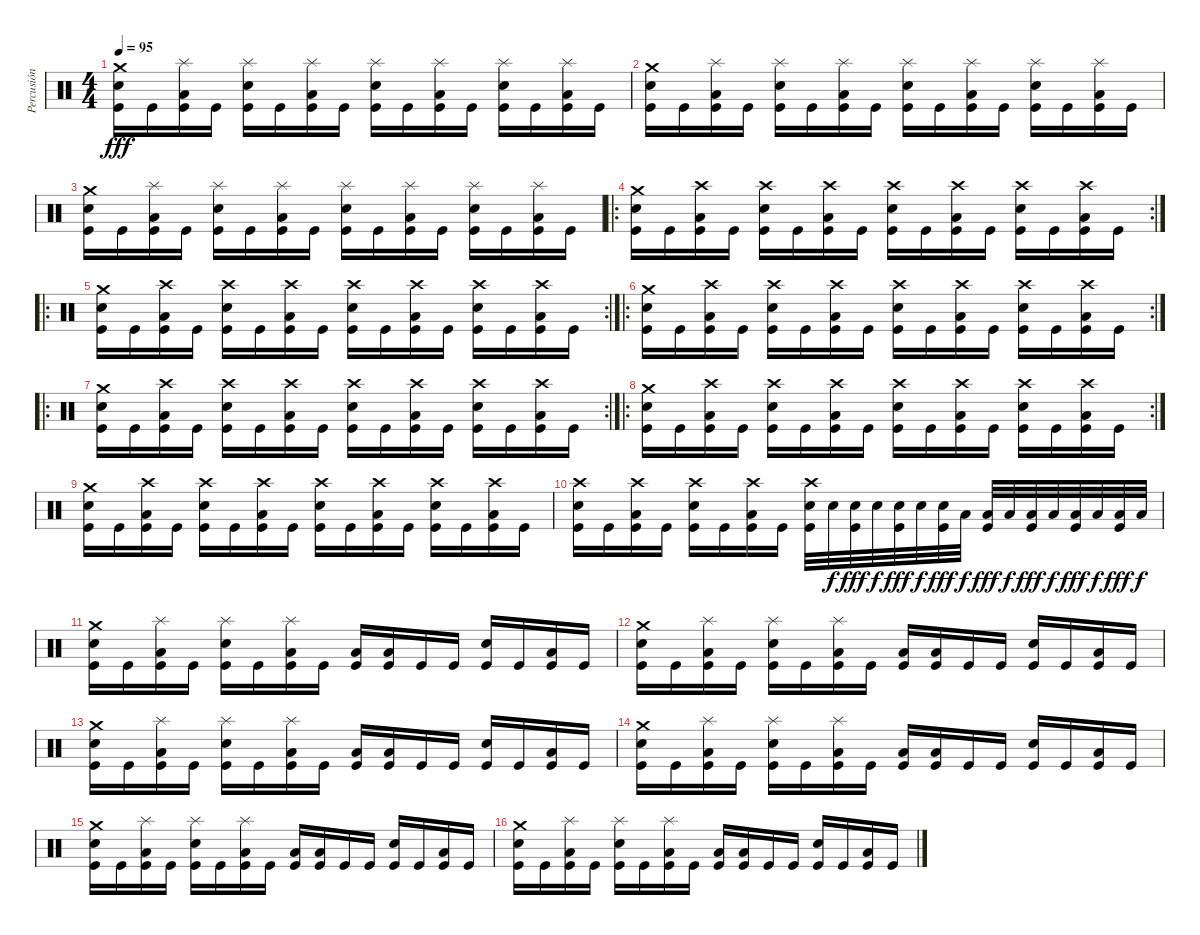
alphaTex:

\track ("Percusión" "Percusión") {instrument percussion}
\staff {score}
\articulation defaults
\ts (4 4)
\tempo 95
\clef neutral
\ks c
("Crash medium (hit)" "Snare (hit) 2" "Kick (hit)").16{dy fff} "Kick (hit)".16 ("Splash (hit)" "Low Floor Tom (hit)" "Kick (hit)").16 "Kick (hit)".16 ("Splash (hit)" "Snare (hit) 2" "Kick (hit)").16 "Kick (hit)".16 ("Splash (hit)" "Low Floor Tom (hit)" "Kick (hit)").16 "Kick (hit)".16 ("Splash (hit)" "Snare (hit) 2" "Kick (hit)").16 "Kick (hit)".16 ("Splash (hit)" "Low Floor Tom (hit)" "Kick (hit)").16 "Kick (hit)".16 ("Splash (hit)" "Snare (hit) 2" "Kick (hit)").16 "Kick (hit)".16 ("Splash (hit)" "Low Floor Tom (hit)" "Kick (hit)").16 "Kick (hit)".16 |
("Crash medium (hit)" "Snare (hit) 2" "Kick (hit)").16 "Kick (hit)".16 ("Splash (hit)" "Low Floor Tom (hit)" "Kick (hit)").16 "Kick (hit)".16 ("Splash (hit)" "Snare (hit) 2" "Kick (hit)").16 "Kick (hit)".16 ("Splash (hit)" "Low Floor Tom (hit)" "Kick (hit)").16 "Kick (hit)".16 ("Splash (hit)" "Snare (hit) 2" "Kick (hit)").16 "Kick (hit)".16 ("Splash (hit)" "Low Floor Tom (hit)" "Kick (hit)").16 "Kick (hit)".16 ("Splash (hit)" "Snare (hit) 2" "Kick (hit)").16 "Kick (hit)".16 ("Splash (hit)" "Low Floor Tom (hit)" "Kick (hit)").16 "Kick (hit)".16 |
("Crash medium (hit)" "Snare (hit) 2" "Kick (hit)").16 "Kick (hit)".16 ("Splash (hit)" "Low Floor Tom (hit)" "Kick (hit)").16 "Kick (hit)".16 ("Splash (hit)" "Snare (hit) 2" "Kick (hit)").16 "Kick (hit)".16 ("Splash (hit)" "Low Floor Tom (hit)" "Kick (hit)").16 "Kick (hit)".16 ("Splash (hit)" "Snare (hit) 2" "Kick (hit)").16 "Kick (hit)".16 ("Splash (hit)" "Low Floor Tom (hit)" "Kick (hit)").16 "Kick (hit)".16 ("Splash (hit)" "Snare (hit) 2" "Kick (hit)").16 "Kick (hit)".16 ("Splash (hit)" "Low Floor Tom (hit)" "Kick (hit)").16 "Kick (hit)".16 |
\ro
\rc 2
("Crash medium (hit)" "Snare (hit) 2" "Kick (hit)").16 "Kick (hit)".16 ("Crash high (hit)" "Low Floor Tom (hit)" "Kick (hit)").16 "Kick (hit)".16 ("Crash high (hit)" "Snare (hit) 2" "Kick (hit)").16 "Kick (hit)".16 ("Crash high (hit)" "Low Floor Tom (hit)" "Kick (hit)").16 "Kick (hit)".16 ("Crash high (hit)" "Snare (hit) 2" "Kick (hit)").16 "Kick (hit)".16 ("Crash high (hit)" "Low Floor Tom (hit)" "Kick (hit)").16 "Kick (hit)".16 ("Crash high (hit)" "Snare (hit) 2" "Kick (hit)").16 "Kick (hit)".16 ("Crash high (hit)" "Low Floor Tom (hit)" "Kick (hit)").16 "Kick (hit)".16 |
\ro
\rc 2
("Crash medium (hit)" "Snare (hit) 2" "Kick (hit)").16 "Kick (hit)".16 ("Crash high (hit)" "Low Floor Tom (hit)" "Kick (hit)").16 "Kick (hit)".16 ("Crash high (hit)" "Snare (hit) 2" "Kick (hit)").16 "Kick (hit)".16 ("Crash high (hit)" "Low Floor Tom (hit)" "Kick (hit)").16 "Kick (hit)".16 ("Crash high (hit)" "Snare (hit) 2" "Kick (hit)").16 "Kick (hit)".16 ("Crash high (hit)" "Low Floor Tom (hit)" "Kick (hit)").16 "Kick (hit)".16 ("Crash high (hit)" "Snare (hit) 2" "Kick (hit)").16 "Kick (hit)".16 ("Crash high (hit)" "Low Floor Tom (hit)" "Kick (hit)").16 "Kick (hit)".16 |
\ro
\rc 2
("Crash medium (hit)" "Snare (hit) 2" "Kick (hit)").16 "Kick (hit)".16 ("Crash high (hit)" "Low Floor Tom (hit)" "Kick (hit)").16 "Kick (hit)".16 ("Crash high (hit)" "Snare (hit) 2" "Kick (hit)").16 "Kick (hit)".16 ("Crash high (hit)" "Low Floor Tom (hit)" "Kick (hit)").16 "Kick (hit)".16 ("Crash high (hit)" "Snare (hit) 2" "Kick (hit)").16 "Kick (hit)".16 ("Crash high (hit)" "Low Floor Tom (hit)" "Kick (hit)").16 "Kick (hit)".16 ("Crash high (hit)" "Snare (hit) 2" "Kick (hit)").16 "Kick (hit)".16 ("Crash high (hit)" "Low Floor Tom (hit)" "Kick (hit)").16 "Kick (hit)".16 |
\ro
\rc 2
("Crash medium (hit)" "Snare (hit) 2" "Kick (hit)").16 "Kick (hit)".16 ("Crash high (hit)" "Low Floor Tom (hit)" "Kick (hit)").16 "Kick (hit)".16 ("Crash high (hit)" "Snare (hit) 2" "Kick (hit)").16 "Kick (hit)".16 ("Crash high (hit)" "Low Floor Tom (hit)" "Kick (hit)").16 "Kick (hit)".16 ("Crash high (hit)" "Snare (hit) 2" "Kick (hit)").16 "Kick (hit)".16 ("Crash high (hit)" "Low Floor Tom (hit)" "Kick (hit)").16 "Kick (hit)".16 ("Crash high (hit)" "Snare (hit) 2" "Kick (hit)").16 "Kick (hit)".16 ("Crash high (hit)" "Low Floor Tom (hit)" "Kick (hit)").16 "Kick (hit)".16 |
\ro
\rc 2
("Crash medium (hit)" "Snare (hit) 2" "Kick (hit)").16 "Kick (hit)".16 ("Crash high (hit)" "Low Floor Tom (hit)" "Kick (hit)").16 "Kick (hit)".16 ("Crash high (hit)" "Snare (hit) 2" "Kick (hit)").16 "Kick (hit)".16 ("Crash high (hit)" "Low Floor Tom (hit)" "Kick (hit)").16 "Kick (hit)".16 ("Crash high (hit)" "Snare (hit) 2" "Kick (hit)").16 "Kick (hit)".16 ("Crash high (hit)" "Low Floor Tom (hit)" "Kick (hit)").16 "Kick (hit)".16 ("Crash high (hit)" "Snare (hit) 2" "Kick (hit)").16 "Kick (hit)".16 ("Crash high (hit)" "Low Floor Tom (hit)" "Kick (hit)").16 "Kick (hit)".16 |
("Crash medium (hit)" "Snare (hit) 2" "Kick (hit)").16 "Kick (hit)".16 ("Crash high (hit)" "Low Floor Tom (hit)" "Kick (hit)").16 "Kick (hit)".16 ("Crash high (hit)" "Snare (hit) 2" "Kick (hit)").16 "Kick (hit)".16 ("Crash high (hit)" "Low Floor Tom (hit)" "Kick (hit)").16 "Kick (hit)".16 ("Crash high (hit)" "Snare (hit) 2" "Kick (hit)").16 "Kick (hit)".16 ("Crash high (hit)" "Low Floor Tom (hit)" "Kick (hit)").16 "Kick (hit)".16 ("Crash high (hit)" "Snare (hit) 2" "Kick (hit)").16 "Kick (hit)".16 ("Crash high (hit)" "Low Floor Tom (hit)" "Kick (hit)").16 "Kick (hit)".16 |
("Crash high (hit)" "Snare (hit) 2" "Kick (hit)").16 "Kick (hit)".16 ("Crash high (hit)" "Low Floor Tom (hit)" "Kick (hit)").16 "Kick (hit)".16 ("Crash high (hit)" "Snare (hit) 2" "Kick (hit)").16 "Kick (hit)".16 ("Crash high (hit)" "Low Floor Tom (hit)" "Kick (hit)").16 "Kick (hit)".16 ("Crash high (hit)" "Snare (hit) 2" "Kick (hit)").32 "Snare (hit) 2".32{dy f} ("Snare (hit) 2" "Kick (hit)").32{dy fff} "Snare (hit) 2".32{dy f} ("Snare (hit) 2" "Kick (hit)").32{dy fff} "Snare (hit) 2".32{dy f} ("Snare (hit) 2" "Kick (hit)").32{dy fff} "Low Floor Tom (hit)".32{dy f} ("Low Floor Tom (hit)" "Kick (hit)").32{dy fff} "Low Floor Tom (hit)".32{dy f} ("Low Floor Tom (hit)" "Kick (hit)").32{dy fff} "Low Floor Tom (hit)".32{dy f} ("Low Floor Tom (hit)" "Kick (hit)").32{dy fff} "Low Floor Tom (hit)".32{dy f} ("Low Floor Tom (hit)" "Kick (hit)").32{dy fff} "Low Floor Tom (hit)".32{dy f} |
("Crash medium (hit)" "Snare (hit) 2" "Kick (hit)").16 "Kick (hit)".16 ("Splash (hit)" "Low Floor Tom (hit)" "Kick (hit)").16 "Kick (hit)".16 ("Splash (hit)" "Snare (hit) 2" "Kick (hit)").16 "Kick (hit)".16 ("Splash (hit)" "Low Floor Tom (hit)" "Kick (hit)").16 "Kick (hit)".16 ("Low Floor Tom (hit)" "Kick (hit)").16 ("Low Floor Tom (hit)" "Kick (hit)").16 "Kick (hit)".16 "Kick (hit)".16 ("Snare (hit) 2" "Kick (hit)").16 "Kick (hit)".16 ("Low Floor Tom (hit)" "Kick (hit)").16 "Kick (hit)".16 |
("Crash medium (hit)" "Snare (hit) 2" "Kick (hit)").16 "Kick (hit)".16 ("Splash (hit)" "Low Floor Tom (hit)" "Kick (hit)").16 "Kick (hit)".16 ("Splash (hit)" "Snare (hit) 2" "Kick (hit)").16 "Kick (hit)".16 ("Splash (hit)" "Low Floor Tom (hit)" "Kick (hit)").16 "Kick (hit)".16 ("Low Floor Tom (hit)" "Kick (hit)").16 ("Low Floor Tom (hit)" "Kick (hit)").16 "Kick (hit)".16 "Kick (hit)".16 ("Snare (hit) 2" "Kick (hit)").16 "Kick (hit)".16 ("Low Floor Tom (hit)" "Kick (hit)").16 "Kick (hit)".16 |
("Crash medium (hit)" "Snare (hit) 2" "Kick (hit)").16 "Kick (hit)".16 ("Splash (hit)" "Low Floor Tom (hit)" "Kick (hit)").16 "Kick (hit)".16 ("Splash (hit)" "Snare (hit) 2" "Kick (hit)").16 "Kick (hit)".16 ("Splash (hit)" "Low Floor Tom (hit)" "Kick (hit)").16 "Kick (hit)".16 ("Low Floor Tom (hit)" "Kick (hit)").16 ("Low Floor Tom (hit)" "Kick (hit)").16 "Kick (hit)".16 "Kick (hit)".16 ("Snare (hit) 2" "Kick (hit)").16 "Kick (hit)".16 ("Low Floor Tom (hit)" "Kick (hit)").16 "Kick (hit)".16 |
("Crash medium (hit)" "Snare (hit) 2" "Kick (hit)").16 "Kick (hit)".16 ("Splash (hit)" "Low Floor Tom (hit)" "Kick (hit)").16 "Kick (hit)".16 ("Splash (hit)" "Snare (hit) 2" "Kick (hit)").16 "Kick (hit)".16 ("Splash (hit)" "Low Floor Tom (hit)" "Kick (hit)").16 "Kick (hit)".16 ("Low Floor Tom (hit)" "Kick (hit)").16 ("Low Floor Tom (hit)" "Kick (hit)").16 "Kick (hit)".16 "Kick (hit)".16 ("Snare (hit) 2" "Kick (hit)").16 "Kick (hit)".16 ("Low Floor Tom (hit)" "Kick (hit)").16 "Kick (hit)".16 |
("Crash medium (hit)" "Snare (hit) 2" "Kick (hit)").16 "Kick (hit)".16 ("Splash (hit)" "Low Floor Tom (hit)" "Kick (hit)").16 "Kick (hit)".16 ("Splash (hit)" "Snare (hit) 2" "Kick (hit)").16 "Kick (hit)".16 ("Splash (hit)" "Low Floor Tom (hit)" "Kick (hit)").16 "Kick (hit)".16 ("Low Floor Tom (hit)" "Kick (hit)").16 ("Low Floor Tom (hit)" "Kick (hit)").16 "Kick (hit)".16 "Kick (hit)".16 ("Snare (hit) 2" "Kick (hit)").16 "Kick (hit)".16 ("Low Floor Tom (hit)" "Kick (hit)").16 "Kick (hit)".16 |
("Crash medium (hit)" "Snare (hit) 2" "Kick (hit)").16 "Kick (hit)".16 ("Splash (hit)" "Low Floor Tom (hit)" "Kick (hit)").16 "Kick (hit)".16 ("Splash (hit)" "Snare (hit) 2" "Kick (hit)").16 "Kick (hit)".16 ("Splash (hit)" "Low Floor Tom (hit)" "Kick (hit)").16 "Kick (hit)".16 ("Low Floor Tom (hit)" "Kick (hit)").16 ("Low Floor Tom (hit)" "Kick (hit)").16 "Kick (hit)".16 "Kick (hit)".16 ("Snare (hit) 2" "Kick (hit)").16 "Kick (hit)".16 ("Low Floor Tom (hit)" "Kick (hit)").16 "Kick (hit)".16
